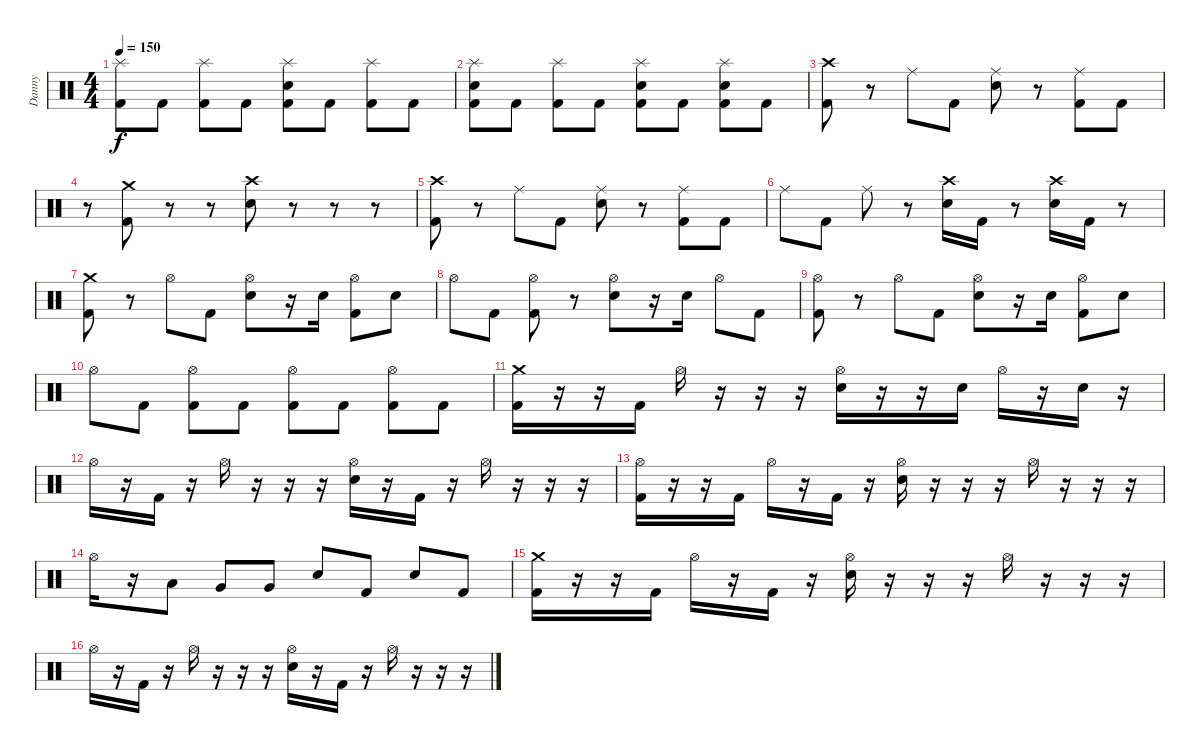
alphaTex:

\track ("Danny" "Danny") {instrument percussion}
\staff {score}
\articulation defaults
\ts (4 4)
\tempo 150
\clef neutral
\ks c
("Splash (hit)" "Kick (hit) 2").8{dy f} "Kick (hit) 2".8 ("Splash (hit)" "Kick (hit) 2").8 "Kick (hit) 2".8 ("Splash (hit)" "Electric Snare (hit)" "Kick (hit) 2").8 "Kick (hit) 2".8 ("Splash (hit)" "Kick (hit) 2").8 "Kick (hit) 2".8 |
("Splash (hit)" "Electric Snare (hit)" "Kick (hit) 2").8 "Kick (hit) 2".8 ("Splash (hit)" "Kick (hit) 2").8 "Kick (hit) 2".8 ("Splash (hit)" "Electric Snare (hit)" "Kick (hit) 2").8 "Kick (hit) 2".8 ("Splash (hit)" "Electric Snare (hit)" "Kick (hit) 2").8 "Kick (hit) 2".8 |
("Crash high (hit)" "Kick (hit) 2").8 r.8 "Ride (middle)".8 "Kick (hit) 2".8 ("Ride (middle)" "Electric Snare (hit)").8 r.8 ("Ride (middle)" "Kick (hit) 2").8 "Kick (hit) 2".8 |
r.8 ("Crash medium (hit)" "Kick (hit) 2").8 r.8 r.8 ("Crash high (hit)" "Electric Snare (hit)").8 r.8 r.8 r.8 |
("Crash high (hit)" "Kick (hit) 2").8 r.8 "Ride (middle)".8 "Kick (hit) 2".8 ("Ride (middle)" "Electric Snare (hit)").8 r.8 ("Ride (middle)" "Kick (hit) 2").8 "Kick (hit) 2".8 |
"Ride (middle)".8 "Kick (hit) 2".8 "Ride (middle)".8 r.8 ("Crash high (hit)" "Electric Snare (hit)").16 "Kick (hit) 2".16 r.8 ("Crash high (hit)" "Electric Snare (hit)").16 "Kick (hit) 2".16 r.8 |
("Crash medium (hit)" "Kick (hit) 2").8 r.8 "Hi-Hat (open)".8 "Kick (hit) 2".8 ("Hi-Hat (open)" "Electric Snare (hit)").8 r.16 "Electric Snare (hit)".16 ("Hi-Hat (open)" "Kick (hit) 2").8 "Electric Snare (hit)".8 |
"Hi-Hat (open)".8 "Kick (hit) 2".8 ("Hi-Hat (open)" "Kick (hit) 2").8 r.8 ("Hi-Hat (open)" "Electric Snare (hit)").8 r.16 "Electric Snare (hit)".16 "Hi-Hat (open)".8 "Kick (hit) 2".8 |
("Hi-Hat (open)" "Kick (hit) 2").8 r.8 "Hi-Hat (open)".8 "Kick (hit) 2".8 ("Hi-Hat (open)" "Electric Snare (hit)").8 r.16 "Electric Snare (hit)".16 ("Hi-Hat (open)" "Kick (hit) 2").8 "Electric Snare (hit)".8 |
"Hi-Hat (open)".8 "Kick (hit) 2".8 ("Hi-Hat (open)" "Kick (hit) 2").8 "Kick (hit) 2".8 ("Hi-Hat (open)" "Kick (hit) 2").8 "Kick (hit) 2".8 ("Hi-Hat (open)" "Kick (hit) 2").8 "Kick (hit) 2".8 |
("Crash medium (hit)" "Kick (hit) 2").16 r.16 r.16 "Kick (hit) 2".16 "Hi-Hat (open)".16 r.16 r.16 r.16 ("Hi-Hat (open)" "Electric Snare (hit)").16 r.16 r.16 "Electric Snare (hit)".16 "Hi-Hat (open)".16 r.16 "Electric Snare (hit)".16 r.16 |
"Hi-Hat (open)".16 r.16 "Kick (hit) 2".16 r.16 "Hi-Hat (open)".16 r.16 r.16 r.16 ("Hi-Hat (open)" "Electric Snare (hit)").16 r.16 "Kick (hit) 2".16 r.16 "Hi-Hat (open)".16 r.16 r.16 r.16 |
("Hi-Hat (open)" "Kick (hit) 2").16 r.16 r.16 "Kick (hit) 2".16 "Hi-Hat (open)".16 r.16 "Kick (hit) 2".16 r.16 ("Hi-Hat (open)" "Electric Snare (hit)").16 r.16 r.16 r.16 "Hi-Hat (open)".16 r.16 r.16 r.16 |
"Hi-Hat (open)".16 r.16 "Low Tom (hit)".8 "Very Low Tom (hit)".8 "Very Low Tom (hit)".8 "Electric Snare (hit)".8 "Kick (hit) 2".8 "Electric Snare (hit)".8 "Kick (hit) 2".8 |
("Crash medium (hit)" "Kick (hit) 2").16 r.16 r.16 "Kick (hit) 2".16 "Hi-Hat (open)".16 r.16 "Kick (hit) 2".16 r.16 ("Hi-Hat (open)" "Electric Snare (hit)").16 r.16 r.16 r.16 "Hi-Hat (open)".16 r.16 r.16 r.16 |
"Hi-Hat (open)".16 r.16 "Kick (hit) 2".16 r.16 "Hi-Hat (open)".16 r.16 r.16 r.16 ("Hi-Hat (open)" "Electric Snare (hit)").16 r.16 "Kick (hit) 2".16 r.16 "Hi-Hat (open)".16 r.16 r.16 r.16
